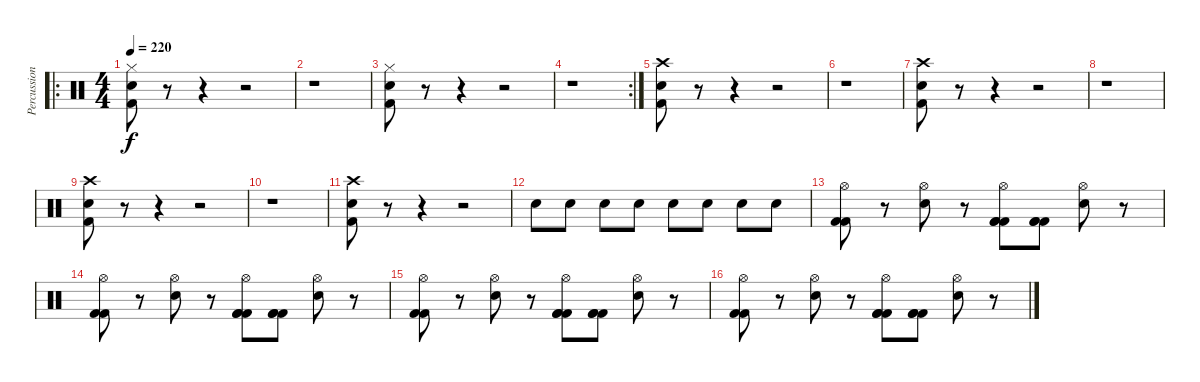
\track ("Percussion" "Percussion") {instrument percussion}
\staff {score}
\articulation defaults
\ro
\ts (4 4)
\tempo 220
\clef neutral
\ks c
("Hi-Hat (closed)" "Electric Snare (hit)" "Kick (hit) 2").8{dy f} r.8 r.4 r.2 |
r.1 |
("Hi-Hat (closed)" "Electric Snare (hit)" "Kick (hit) 2").8 r.8 r.4 r.2 |
\rc 2
r.1 |
("Crash high (hit)" "Electric Snare (hit)" "Kick (hit) 2").8 r.8 r.4 r.2 |
r.1 |
("Crash high (hit)" "Electric Snare (hit)" "Kick (hit) 2").8 r.8 r.4 r.2 |
r.1 |
("Crash high (hit)" "Electric Snare (hit)" "Kick (hit) 2").8 r.8 r.4 r.2 |
r.1 |
("Crash high (hit)" "Electric Snare (hit)" "Kick (hit) 2").8 r.8 r.4 r.2 |
"Electric Snare (hit)".8 "Electric Snare (hit)".8 "Electric Snare (hit)".8 "Electric Snare (hit)".8 "Electric Snare (hit)".8 "Electric Snare (hit)".8 "Electric Snare (hit)".8 "Electric Snare (hit)".8 |
("Hi-Hat (open)" "Kick (hit) 2" "Kick (hit) 2").8 r.8 ("Hi-Hat (open)" "Electric Snare (hit)").8 r.8 ("Hi-Hat (open)" "Kick (hit) 2" "Kick (hit) 2" "Kick (hit) 2").8 ("Kick (hit) 2" "Kick (hit) 2" "Kick (hit) 2").8 ("Hi-Hat (open)" "Electric Snare (hit)").8 r.8 |
("Hi-Hat (open)" "Kick (hit) 2" "Kick (hit) 2").8 r.8 ("Hi-Hat (open)" "Electric Snare (hit)").8 r.8 ("Hi-Hat (open)" "Kick (hit) 2" "Kick (hit) 2" "Kick (hit) 2").8 ("Kick (hit) 2" "Kick (hit) 2" "Kick (hit) 2").8 ("Hi-Hat (open)" "Electric Snare (hit)").8 r.8 |
("Hi-Hat (open)" "Kick (hit) 2" "Kick (hit) 2").8 r.8 ("Hi-Hat (open)" "Electric Snare (hit)").8 r.8 ("Hi-Hat (open)" "Kick (hit) 2" "Kick (hit) 2" "Kick (hit) 2").8 ("Kick (hit) 2" "Kick (hit) 2" "Kick (hit) 2").8 ("Hi-Hat (open)" "Electric Snare (hit)").8 r.8 |
("Hi-Hat (open)" "Kick (hit) 2" "Kick (hit) 2").8 r.8 ("Hi-Hat (open)" "Electric Snare (hit)").8 r.8 ("Hi-Hat (open)" "Kick (hit) 2" "Kick (hit) 2" "Kick (hit) 2").8 ("Kick (hit) 2" "Kick (hit) 2" "Kick (hit) 2").8 ("Hi-Hat (open)" "Electric Snare (hit)").8 r.8
